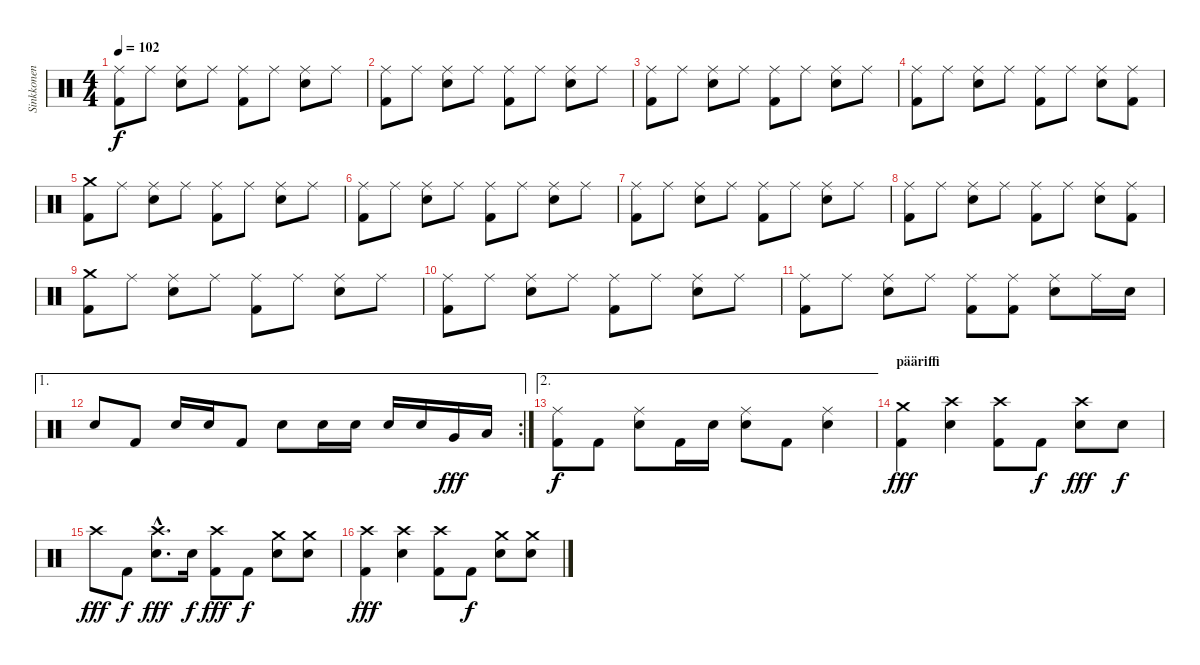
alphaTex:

\track ("Sinkkonen" "Sinkkonen") {instrument percussion}
\staff {score}
\articulation defaults
\ts (4 4)
\tempo 102
\clef neutral
\ks c
("Kick (hit) 2" "Ride (middle)").8{dy f} "Ride (middle)".8 ("Ride (middle)" "Snare (hit) 2").8 "Ride (middle)".8 ("Kick (hit) 2" "Ride (middle)").8 "Ride (middle)".8 ("Ride (middle)" "Snare (hit) 2").8 "Ride (middle)".8 |
("Kick (hit) 2" "Ride (middle)").8 "Ride (middle)".8 ("Ride (middle)" "Snare (hit) 2").8 "Ride (middle)".8 ("Kick (hit) 2" "Ride (middle)").8 "Ride (middle)".8 ("Ride (middle)" "Snare (hit) 2").8 "Ride (middle)".8 |
("Kick (hit) 2" "Ride (middle)").8 "Ride (middle)".8 ("Ride (middle)" "Snare (hit) 2").8 "Ride (middle)".8 ("Kick (hit) 2" "Ride (middle)").8 "Ride (middle)".8 ("Ride (middle)" "Snare (hit) 2").8 "Ride (middle)".8 |
("Kick (hit) 2" "Ride (middle)").8 "Ride (middle)".8 ("Ride (middle)" "Snare (hit) 2").8 "Ride (middle)".8 ("Kick (hit) 2" "Ride (middle)").8 "Ride (middle)".8 ("Ride (middle)" "Snare (hit) 2").8 ("Kick (hit) 2" "Ride (middle)").8 |
("Kick (hit) 2" "Crash medium (hit)").8 "Ride (middle)".8 ("Ride (middle)" "Snare (hit) 2").8 "Ride (middle)".8 ("Kick (hit) 2" "Ride (middle)").8 "Ride (middle)".8 ("Ride (middle)" "Snare (hit) 2").8 "Ride (middle)".8 |
("Kick (hit) 2" "Ride (middle)").8 "Ride (middle)".8 ("Ride (middle)" "Snare (hit) 2").8 "Ride (middle)".8 ("Kick (hit) 2" "Ride (middle)").8 "Ride (middle)".8 ("Ride (middle)" "Snare (hit) 2").8 "Ride (middle)".8 |
("Kick (hit) 2" "Ride (middle)").8 "Ride (middle)".8 ("Ride (middle)" "Snare (hit) 2").8 "Ride (middle)".8 ("Kick (hit) 2" "Ride (middle)").8 "Ride (middle)".8 ("Ride (middle)" "Snare (hit) 2").8 "Ride (middle)".8 |
("Kick (hit) 2" "Ride (middle)").8 "Ride (middle)".8 ("Ride (middle)" "Snare (hit) 2").8 "Ride (middle)".8 ("Kick (hit) 2" "Ride (middle)").8 "Ride (middle)".8 ("Ride (middle)" "Snare (hit) 2").8 ("Kick (hit) 2" "Ride (middle)").8 |
("Kick (hit) 2" "Crash medium (hit)").8 "Ride (middle)".8 ("Ride (middle)" "Snare (hit) 2").8 "Ride (middle)".8 ("Kick (hit) 2" "Ride (middle)").8 "Ride (middle)".8 ("Ride (middle)" "Snare (hit) 2").8 "Ride (middle)".8 |
("Kick (hit) 2" "Ride (middle)").8 "Ride (middle)".8 ("Ride (middle)" "Snare (hit) 2").8 "Ride (middle)".8 ("Kick (hit) 2" "Ride (middle)").8 "Ride (middle)".8 ("Ride (middle)" "Snare (hit) 2").8 "Ride (middle)".8 |
("Kick (hit) 2" "Ride (middle)").8 "Ride (middle)".8 ("Ride (middle)" "Snare (hit) 2").8 "Ride (middle)".8 ("Kick (hit) 2" "Ride (middle)").8 ("Kick (hit) 2" "Ride (middle)").8 ("Ride (middle)" "Snare (hit) 2").8 "Ride (middle)".16 "Snare (hit) 2".16 |
\ae 1
\rc 2 "Snare (hit) 2".8 "Kick (hit) 2".8 "Snare (hit) 2".16 "Snare (hit) 2".16 "Kick (hit) 2".8 "Snare (hit) 2".8 "Snare (hit) 2".16 "Snare (hit) 2".16 "Snare (hit) 2".16 "Snare (hit) 2".16 "Very Low Tom (hit)".16{dy fff} "Low Floor Tom (hit)".16
|
\ae 2
("Kick (hit) 2" "Ride (middle)").8{dy f} "Kick (hit) 2".8 ("Ride (middle)" "Snare (hit) 2").8 "Kick (hit) 2".16 "Snare (hit) 2".16 ("Ride (middle)" "Snare (hit) 2").8 "Kick (hit) 2".8 ("Ride (middle)" "Snare (hit) 2").4 |
\section ("" "pääriffi")
("Kick (hit) 2" "Crash medium (hit)").4{dy fff} ("Crash high (hit)" "Snare (hit) 2").4 ("Kick (hit) 2" "Crash high (hit)").8 "Kick (hit) 2".8{dy f} ("Crash high (hit)" "Snare (hit) 2").8{dy fff} "Snare (hit) 2".8{dy f} |
"Crash high (hit)".8{dy fff} "Kick (hit) 2".8{dy f} ("Crash high (hit)"{hac} "Snare (hit) 2"{hac}).8{d dy fff} "Snare (hit) 2".16{dy f} ("Kick (hit) 2" "Crash high (hit)").8{dy fff} "Kick (hit) 2".8{dy f} ("Crash medium (hit)" "Snare (hit) 2").8 ("Crash medium (hit)" "Snare (hit) 2").8 |
("Kick (hit) 2" "Crash high (hit)").4{dy fff} ("Crash high (hit)" "Snare (hit) 2").4 ("Kick (hit) 2" "Crash high (hit)").8 "Kick (hit) 2".8{dy f} ("Crash medium (hit)" "Snare (hit) 2").8 ("Crash medium (hit)" "Snare (hit) 2").8
